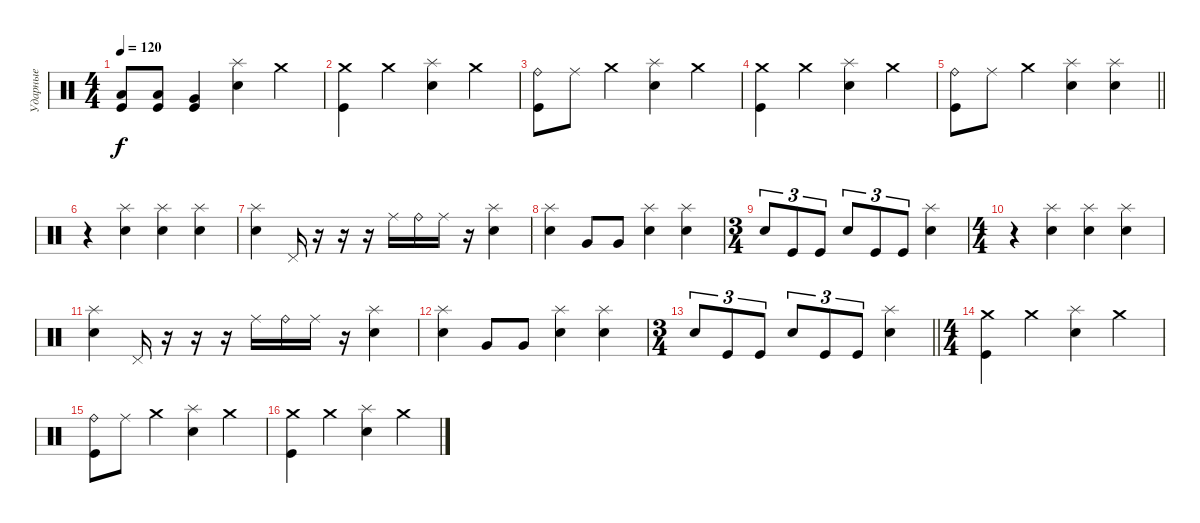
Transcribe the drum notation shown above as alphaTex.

\track ("Ударные" "Ударные") {instrument percussion}
\staff {score}
\articulation defaults
\ts (4 4)
\tempo 120
\clef neutral
\ks c
("Low Tom (hit)" "Kick (hit)").8{dy f} ("Low Tom (hit)" "Kick (hit)").8 ("Very Low Tom (hit)" "Kick (hit)").4 ("Splash (hit)" "Electric Snare (hit)").4 "Crash medium (hit)".4 |
("Crash medium (hit)" "Kick (hit)").4 "Crash medium (hit)".4 ("Splash (hit)" "Electric Snare (hit)").4 "Crash medium (hit)".4 |
("Ride (bell)" "Kick (hit)").8 "Ride (middle)".8 "Crash medium (hit)".4 ("Splash (hit)" "Electric Snare (hit)").4 "Crash medium (hit)".4 |
("Crash medium (hit)" "Kick (hit)").4 "Crash medium (hit)".4 ("Splash (hit)" "Electric Snare (hit)").4 "Crash medium (hit)".4 |
\barLineRight lightlight
("Ride (bell)" "Kick (hit)").8 "Ride (middle)".8 "Crash medium (hit)".4 ("Splash (hit)" "Electric Snare (hit)").4 ("Splash (hit)" "Electric Snare (hit)").4 |
\section ("" " ")
r.4 ("Splash (hit)" "Electric Snare (hit)").4 ("Splash (hit)" "Electric Snare (hit)").4 ("Splash (hit)" "Electric Snare (hit)").4 |
("Splash (hit)" "Electric Snare (hit)").4 "Pedal Hi-Hat (hit)".16 r.16 r.16 r.16 "Ride (middle)".16 "Ride (bell)".16 "Ride (middle)".16 r.16 ("Splash (hit)" "Electric Snare (hit)").4 |
("Splash (hit)" "Electric Snare (hit)").4 "Very Low Tom (hit)".8 "Very Low Tom (hit)".8 ("Splash (hit)" "Electric Snare (hit)").4 ("Splash (hit)" "Electric Snare (hit)").4 |
\ts (3 4)
"Electric Snare (hit)".8{tu (3 2)} "Kick (hit)".8{tu (3 2)} "Kick (hit)".8{tu (3 2)} "Electric Snare (hit)".8{tu (3 2)} "Kick (hit)".8{tu (3 2)} "Kick (hit)".8{tu (3 2)} ("Splash (hit)" "Electric Snare (hit)").4 |
\ts (4 4)
r.4 ("Splash (hit)" "Electric Snare (hit)").4 ("Splash (hit)" "Electric Snare (hit)").4 ("Splash (hit)" "Electric Snare (hit)").4 |
("Splash (hit)" "Electric Snare (hit)").4 "Pedal Hi-Hat (hit)".16 r.16 r.16 r.16 "Ride (middle)".16 "Ride (bell)".16 "Ride (middle)".16 r.16 ("Splash (hit)" "Electric Snare (hit)").4 |
("Splash (hit)" "Electric Snare (hit)").4 "Very Low Tom (hit)".8 "Very Low Tom (hit)".8 ("Splash (hit)" "Electric Snare (hit)").4 ("Splash (hit)" "Electric Snare (hit)").4 |
\ts (3 4)
\barLineRight lightlight "Electric Snare (hit)".8{tu (3 2)} "Kick (hit)".8{tu (3 2)} "Kick (hit)".8{tu (3 2)} "Electric Snare (hit)".8{tu (3 2)} "Kick (hit)".8{tu (3 2)} "Kick (hit)".8{tu (3 2)}
("Splash (hit)" "Electric Snare (hit)").4 |
\ts (4 4)
\section ("" " ")
("Crash medium (hit)" "Kick (hit)").4 "Crash medium (hit)".4 ("Splash (hit)" "Electric Snare (hit)").4 "Crash medium (hit)".4 |
("Ride (bell)" "Kick (hit)").8 "Ride (middle)".8 "Crash medium (hit)".4 ("Splash (hit)" "Electric Snare (hit)").4 "Crash medium (hit)".4 |
("Crash medium (hit)" "Kick (hit)").4 "Crash medium (hit)".4 ("Splash (hit)" "Electric Snare (hit)").4 "Crash medium (hit)".4
